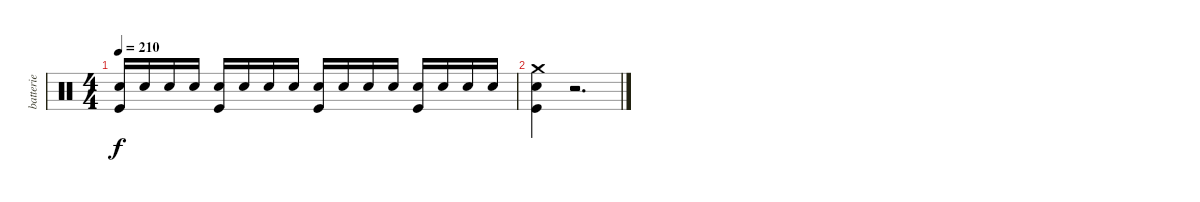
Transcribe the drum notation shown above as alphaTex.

\track ("batterie " "batterie ") {instrument percussion}
\staff {score}
\articulation defaults
\ts (4 4)
\tempo 210
\clef neutral
\ks c
("Snare (hit) 2" "Kick (hit)").16{dy f} "Snare (hit) 2".16 "Snare (hit) 2".16 "Snare (hit) 2".16 ("Snare (hit) 2" "Kick (hit)").16 "Snare (hit) 2".16 "Snare (hit) 2".16 "Snare (hit) 2".16 ("Snare (hit) 2" "Kick (hit)").16 "Snare (hit) 2".16 "Snare (hit) 2".16 "Snare (hit) 2".16 ("Snare (hit) 2" "Kick (hit)").16 "Snare (hit) 2".16 "Snare (hit) 2".16 "Snare (hit) 2".16 |
("Crash medium (hit)" "Snare (hit) 2" "Kick (hit)").4 r.2{d}
